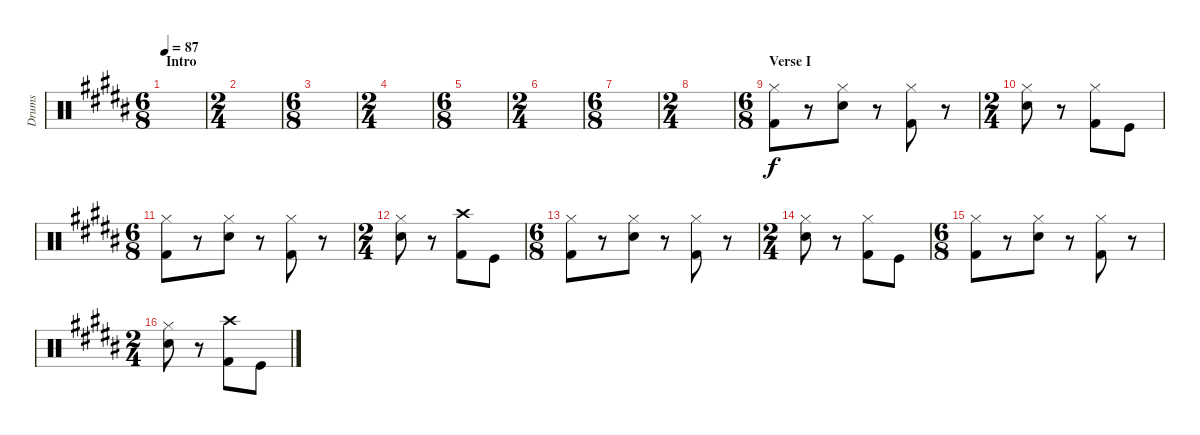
\track ("Drums" "Drums") {instrument percussion}
\staff {score}
\articulation defaults
\ts (6 8)
\section ("" "Intro")
\tempo 87
\clef neutral
\ks b
|
\ts (2 4)
|
\ts (6 8)
|
\ts (2 4)
|
\ts (6 8)
|
\ts (2 4)
|
\ts (6 8)
|
\ts (2 4)
|
\ts (6 8)
\section ("" "Verse I")
("Hi-Hat (closed)" "Kick (hit) 2").8 r.8 ("Hi-Hat (closed)" "Snare (hit) 2").8 r.8 ("Hi-Hat (closed)" "Kick (hit) 2").8 r.8 |
\ts (2 4)
("Hi-Hat (closed)" "Snare (hit) 2").8 r.8 ("Hi-Hat (closed)" "Kick (hit) 2").8 "Kick (hit)".8 |
\ts (6 8)
("Hi-Hat (closed)" "Kick (hit) 2").8 r.8 ("Hi-Hat (closed)" "Snare (hit) 2").8 r.8 ("Hi-Hat (closed)" "Kick (hit) 2").8 r.8 |
\ts (2 4)
("Hi-Hat (closed)" "Snare (hit) 2").8 r.8 ("Crash high (hit)" "Kick (hit) 2").8 "Kick (hit)".8 |
\ts (6 8)
("Hi-Hat (closed)" "Kick (hit) 2").8 r.8 ("Hi-Hat (closed)" "Snare (hit) 2").8 r.8 ("Hi-Hat (closed)" "Kick (hit) 2").8 r.8 |
\ts (2 4)
("Hi-Hat (closed)" "Snare (hit) 2").8 r.8 ("Hi-Hat (closed)" "Kick (hit) 2").8 "Kick (hit)".8 |
\ts (6 8)
("Hi-Hat (closed)" "Kick (hit) 2").8 r.8 ("Hi-Hat (closed)" "Snare (hit) 2").8 r.8 ("Hi-Hat (closed)" "Kick (hit) 2").8 r.8 |
\ts (2 4)
("Hi-Hat (closed)" "Snare (hit) 2").8 r.8 ("Crash high (hit)" "Kick (hit) 2").8 "Kick (hit)".8
